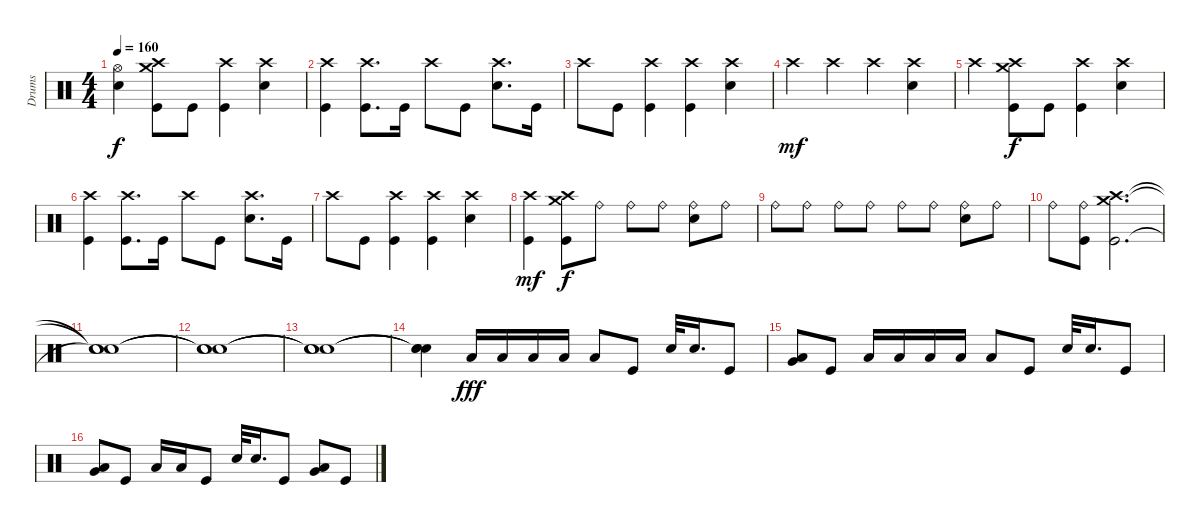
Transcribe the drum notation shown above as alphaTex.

\track ("Drums" "Drums") {instrument percussion}
\staff {score}
\articulation defaults
\ts (4 4)
\tempo 160
\clef neutral
\ks c
("Electric Snare (hit)" "Hi-Hat (open)").4{dy f} ("Kick (hit)" "Crash high (hit)" "Crash medium (hit)").8 "Kick (hit)".8 ("Kick (hit)" "Crash high (hit)").4 ("Electric Snare (hit)" "Crash high (hit)").4 |
("Kick (hit)" "Crash high (hit)").4 ("Kick (hit)" "Crash high (hit)").8{d} "Kick (hit)".16 "Crash high (hit)".8 "Kick (hit)".8 ("Electric Snare (hit)" "Crash high (hit)").8{d} "Kick (hit)".16 |
"Crash high (hit)".8 "Kick (hit)".8 ("Kick (hit)" "Crash high (hit)").4 ("Kick (hit)" "Crash high (hit)").4 ("Electric Snare (hit)" "Crash high (hit)").4 |
"Crash high (hit)".4{dy mf} "Crash high (hit)".4 "Crash high (hit)".4 ("Electric Snare (hit)" "Crash high (hit)").4 |
"Crash high (hit)".4 ("Kick (hit)" "Crash high (hit)" "Crash medium (hit)").8{dy f} "Kick (hit)".8 ("Kick (hit)" "Crash high (hit)").4 ("Electric Snare (hit)" "Crash high (hit)").4 |
("Kick (hit)" "Crash high (hit)").4 ("Kick (hit)" "Crash high (hit)").8{d} "Kick (hit)".16 "Crash high (hit)".8 "Kick (hit)".8 ("Electric Snare (hit)" "Crash high (hit)").8{d} "Kick (hit)".16 |
"Crash high (hit)".8 "Kick (hit)".8 ("Kick (hit)" "Crash high (hit)").4 ("Kick (hit)" "Crash high (hit)").4 ("Electric Snare (hit)" "Crash high (hit)").4 |
("Kick (hit)" "Crash high (hit)").4{dy mf} ("Kick (hit)" "Crash high (hit)" "Crash medium (hit)").8{dy f} "Ride (bell)".8 "Ride (bell)".8 "Ride (bell)".8 ("Electric Snare (hit)" "Ride (bell)").8 "Ride (bell)".8 |
"Ride (bell)".8 "Ride (bell)".8 "Ride (bell)".8 "Ride (bell)".8 "Ride (bell)".8 "Ride (bell)".8 ("Electric Snare (hit)" "Ride (bell)").8 "Ride (bell)".8 |
"Ride (bell)".8 ("Kick (hit)" "Ride (bell)").8 ("Kick (hit)" "Crash high (hit)" "Crash medium (hit)").2{d} |
("Snare (hit)"{t} "Snare (hit)"{t} "Snare (hit)"{t}).1 |
("Snare (hit)"{t} "Snare (hit)"{t} "Snare (hit)"{t}).1 |
("Snare (hit)"{t} "Snare (hit)"{t} "Snare (hit)"{t}).1 |
("Snare (hit)"{t} "Snare (hit)"{t} "Snare (hit)"{t}).4 "Low Floor Tom (hit)".16{dy fff} "Low Floor Tom (hit)".16 "Low Floor Tom (hit)".16 "Low Floor Tom (hit)".16 "Low Floor Tom (hit)".8 "Kick (hit)".8 "Electric Snare (hit)".32 "Electric Snare (hit)".16{d} "Kick (hit)".8 |
("Low Floor Tom (hit)" "Very Low Tom (hit)").8 "Kick (hit)".8 "Low Floor Tom (hit)".16 "Low Floor Tom (hit)".16 "Low Floor Tom (hit)".16 "Low Floor Tom (hit)".16 "Low Floor Tom (hit)".8 "Kick (hit)".8 "Electric Snare (hit)".32 "Electric Snare (hit)".16{d} "Kick (hit)".8 |
("Low Floor Tom (hit)" "Very Low Tom (hit)").8 "Kick (hit)".8 "Low Floor Tom (hit)".16 "Low Floor Tom (hit)".16 "Kick (hit)".8 "Electric Snare (hit)".32 "Electric Snare (hit)".16{d} "Kick (hit)".8 ("Low Floor Tom (hit)" "Very Low Tom (hit)").8 "Kick (hit)".8
